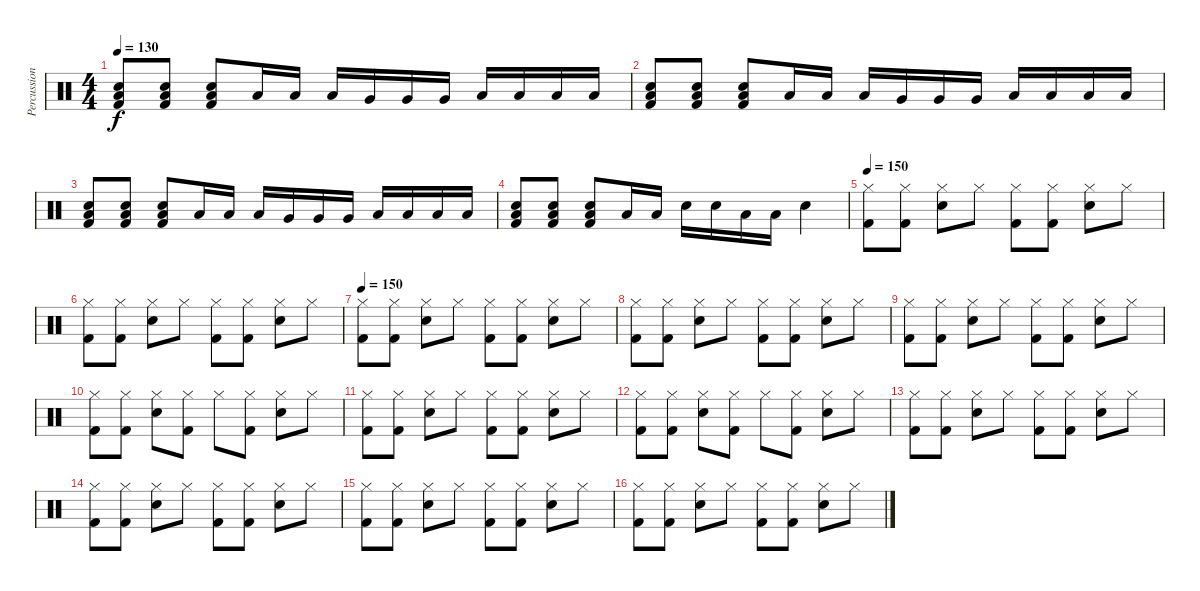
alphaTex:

\track ("Percussion" "Percussion") {instrument percussion}
\staff {score}
\articulation defaults
\ts (4 4)
\tempo 130
\clef neutral
\ks c
("Hand Clap (hit)" "Low Tom (hit)" "Kick (hit) 2").8{dy f} ("Hand Clap (hit)" "Low Tom (hit)" "Kick (hit) 2").8 ("Hand Clap (hit)" "Low Tom (hit)" "Kick (hit) 2").8 "Low Tom (hit)".16 "Low Tom (hit)".16 "Low Tom (hit)".16 "Very Low Tom (hit)".16 "Very Low Tom (hit)".16 "Very Low Tom (hit)".16 "Low Floor Tom (hit)".16 "Low Floor Tom (hit)".16 "Low Floor Tom (hit)".16 "Low Floor Tom (hit)".16 |
("Hand Clap (hit)" "Low Tom (hit)" "Kick (hit) 2").8 ("Hand Clap (hit)" "Low Tom (hit)" "Kick (hit) 2").8 ("Hand Clap (hit)" "Low Tom (hit)" "Kick (hit) 2").8 "Low Tom (hit)".16 "Low Tom (hit)".16 "Low Tom (hit)".16 "Very Low Tom (hit)".16 "Very Low Tom (hit)".16 "Very Low Tom (hit)".16 "Low Floor Tom (hit)".16 "Low Floor Tom (hit)".16 "Low Floor Tom (hit)".16 "Low Floor Tom (hit)".16 |
("Hand Clap (hit)" "Low Tom (hit)" "Kick (hit) 2").8 ("Hand Clap (hit)" "Low Tom (hit)" "Kick (hit) 2").8 ("Hand Clap (hit)" "Low Tom (hit)" "Kick (hit) 2").8 "Low Tom (hit)".16 "Low Tom (hit)".16 "Low Tom (hit)".16 "Very Low Tom (hit)".16 "Very Low Tom (hit)".16 "Very Low Tom (hit)".16 "Low Floor Tom (hit)".16 "Low Floor Tom (hit)".16 "Low Floor Tom (hit)".16 "Low Floor Tom (hit)".16 |
("Hand Clap (hit)" "Low Tom (hit)" "Kick (hit) 2").8 ("Hand Clap (hit)" "Low Tom (hit)" "Kick (hit) 2").8 ("Hand Clap (hit)" "Low Tom (hit)" "Kick (hit) 2").8 "Low Tom (hit)".16 "Low Tom (hit)".16 "Electric Snare (hit)".16 "Electric Snare (hit)".16 "Low Tom (hit)".16 "Low Tom (hit)".16 "Electric Snare (hit)".4 |
\tempo 150
("Hi-Hat (closed)" "Kick (hit) 2").8 ("Hi-Hat (closed)" "Kick (hit) 2").8 ("Hi-Hat (closed)" "Electric Snare (hit)").8 "Hi-Hat (closed)".8 ("Hi-Hat (closed)" "Kick (hit) 2").8 ("Hi-Hat (closed)" "Kick (hit) 2").8 ("Hi-Hat (closed)" "Electric Snare (hit)").8 "Hi-Hat (closed)".8 |
("Hi-Hat (closed)" "Kick (hit) 2").8 ("Hi-Hat (closed)" "Kick (hit) 2").8 ("Hi-Hat (closed)" "Electric Snare (hit)").8 "Hi-Hat (closed)".8 ("Hi-Hat (closed)" "Kick (hit) 2").8 ("Hi-Hat (closed)" "Kick (hit) 2").8 ("Hi-Hat (closed)" "Electric Snare (hit)").8 "Hi-Hat (closed)".8 |
\tempo 150
("Hi-Hat (closed)" "Kick (hit) 2").8 ("Hi-Hat (closed)" "Kick (hit) 2").8 ("Hi-Hat (closed)" "Electric Snare (hit)").8 "Hi-Hat (closed)".8 ("Hi-Hat (closed)" "Kick (hit) 2").8 ("Hi-Hat (closed)" "Kick (hit) 2").8 ("Hi-Hat (closed)" "Electric Snare (hit)").8 "Hi-Hat (closed)".8 |
("Hi-Hat (closed)" "Kick (hit) 2").8 ("Hi-Hat (closed)" "Kick (hit) 2").8 ("Hi-Hat (closed)" "Electric Snare (hit)").8 "Hi-Hat (closed)".8 ("Hi-Hat (closed)" "Kick (hit) 2").8 ("Hi-Hat (closed)" "Kick (hit) 2").8 ("Hi-Hat (closed)" "Electric Snare (hit)").8 "Hi-Hat (closed)".8 |
("Hi-Hat (closed)" "Kick (hit) 2").8 ("Hi-Hat (closed)" "Kick (hit) 2").8 ("Hi-Hat (closed)" "Electric Snare (hit)").8 "Hi-Hat (closed)".8 ("Hi-Hat (closed)" "Kick (hit) 2").8 ("Hi-Hat (closed)" "Kick (hit) 2").8 ("Hi-Hat (closed)" "Electric Snare (hit)").8 "Hi-Hat (closed)".8 |
("Hi-Hat (closed)" "Kick (hit) 2").8 ("Hi-Hat (closed)" "Kick (hit) 2").8 ("Hi-Hat (closed)" "Electric Snare (hit)").8 ("Hi-Hat (closed)" "Kick (hit) 2").8 "Hi-Hat (closed)".8 ("Hi-Hat (closed)" "Kick (hit) 2").8 ("Hi-Hat (closed)" "Electric Snare (hit)").8 "Hi-Hat (closed)".8 |
("Hi-Hat (closed)" "Kick (hit) 2").8 ("Hi-Hat (closed)" "Kick (hit) 2").8 ("Hi-Hat (closed)" "Electric Snare (hit)").8 "Hi-Hat (closed)".8 ("Hi-Hat (closed)" "Kick (hit) 2").8 ("Hi-Hat (closed)" "Kick (hit) 2").8 ("Hi-Hat (closed)" "Electric Snare (hit)").8 "Hi-Hat (closed)".8 |
("Hi-Hat (closed)" "Kick (hit) 2").8 ("Hi-Hat (closed)" "Kick (hit) 2").8 ("Hi-Hat (closed)" "Electric Snare (hit)").8 ("Hi-Hat (closed)" "Kick (hit) 2").8 "Hi-Hat (closed)".8 ("Hi-Hat (closed)" "Kick (hit) 2").8 ("Hi-Hat (closed)" "Electric Snare (hit)").8 "Hi-Hat (closed)".8 |
("Hi-Hat (closed)" "Kick (hit) 2").8 ("Hi-Hat (closed)" "Kick (hit) 2").8 ("Hi-Hat (closed)" "Electric Snare (hit)").8 "Hi-Hat (closed)".8 ("Hi-Hat (closed)" "Kick (hit) 2").8 ("Hi-Hat (closed)" "Kick (hit) 2").8 ("Hi-Hat (closed)" "Electric Snare (hit)").8 "Hi-Hat (closed)".8 |
("Hi-Hat (closed)" "Kick (hit) 2").8 ("Hi-Hat (closed)" "Kick (hit) 2").8 ("Hi-Hat (closed)" "Electric Snare (hit)").8 "Hi-Hat (closed)".8 ("Hi-Hat (closed)" "Kick (hit) 2").8 ("Hi-Hat (closed)" "Kick (hit) 2").8 ("Hi-Hat (closed)" "Electric Snare (hit)").8 "Hi-Hat (closed)".8 |
("Hi-Hat (closed)" "Kick (hit) 2").8 ("Hi-Hat (closed)" "Kick (hit) 2").8 ("Hi-Hat (closed)" "Electric Snare (hit)").8 "Hi-Hat (closed)".8 ("Hi-Hat (closed)" "Kick (hit) 2").8 ("Hi-Hat (closed)" "Kick (hit) 2").8 ("Hi-Hat (closed)" "Electric Snare (hit)").8 "Hi-Hat (closed)".8 |
("Hi-Hat (closed)" "Kick (hit) 2").8 ("Hi-Hat (closed)" "Kick (hit) 2").8 ("Hi-Hat (closed)" "Electric Snare (hit)").8 "Hi-Hat (closed)".8 ("Hi-Hat (closed)" "Kick (hit) 2").8 ("Hi-Hat (closed)" "Kick (hit) 2").8 ("Hi-Hat (closed)" "Electric Snare (hit)").8 "Hi-Hat (closed)".8
